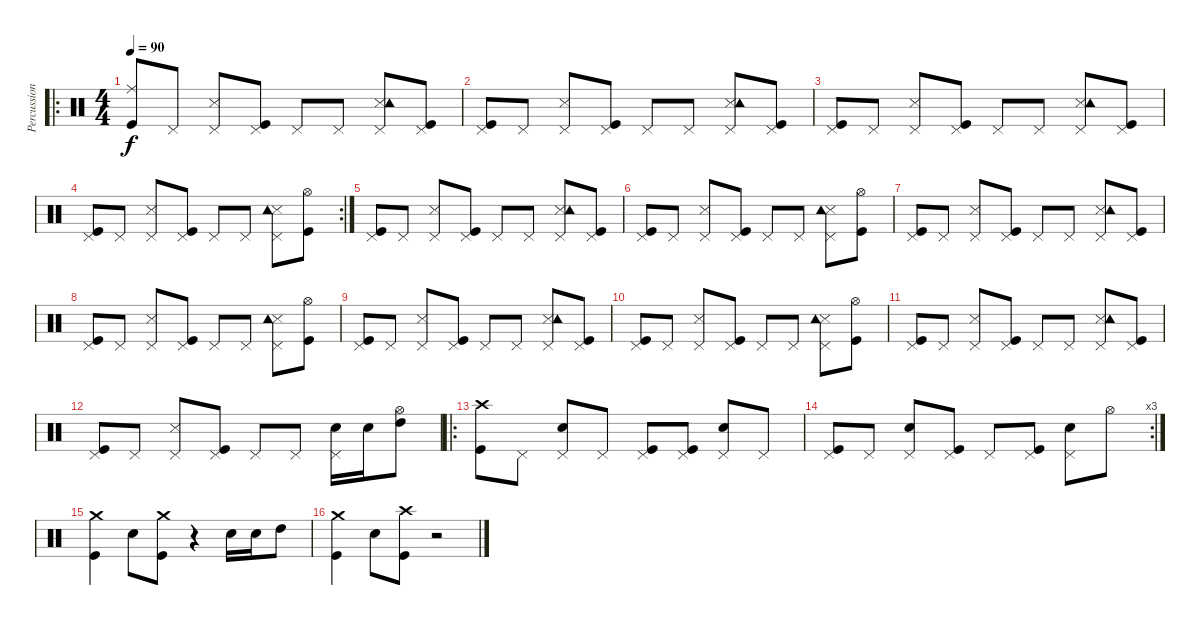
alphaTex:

\track ("Percussions" "Percussion") {instrument percussion}
\staff {score}
\articulation defaults
\ro
\ts (4 4)
\tempo 90
\clef neutral
\ks c
("Ride (middle)" "Kick (hit)").8{dy f} "Pedal Hi-Hat (hit)".8 ("Pedal Hi-Hat (hit)" "Snare (side stick) 3").8 ("Pedal Hi-Hat (hit)" "Kick (hit)").8 "Pedal Hi-Hat (hit)".8 "Pedal Hi-Hat (hit)".8 ("Pedal Hi-Hat (hit)" "Snare (side stick) 3" "Tambourine (hit)").8 ("Pedal Hi-Hat (hit)" "Kick (hit)").8 |
("Pedal Hi-Hat (hit)" "Kick (hit)").8 "Pedal Hi-Hat (hit)".8 ("Pedal Hi-Hat (hit)" "Snare (side stick) 3").8 ("Pedal Hi-Hat (hit)" "Kick (hit)").8 "Pedal Hi-Hat (hit)".8 "Pedal Hi-Hat (hit)".8 ("Pedal Hi-Hat (hit)" "Snare (side stick) 3" "Tambourine (hit)").8 ("Pedal Hi-Hat (hit)" "Kick (hit)").8 |
("Pedal Hi-Hat (hit)" "Kick (hit)").8 "Pedal Hi-Hat (hit)".8 ("Pedal Hi-Hat (hit)" "Snare (side stick) 3").8 ("Pedal Hi-Hat (hit)" "Kick (hit)").8 "Pedal Hi-Hat (hit)".8 "Pedal Hi-Hat (hit)".8 ("Pedal Hi-Hat (hit)" "Snare (side stick) 3" "Tambourine (hit)").8 ("Pedal Hi-Hat (hit)" "Kick (hit)").8 |
\rc 2
("Pedal Hi-Hat (hit)" "Kick (hit)").8 "Pedal Hi-Hat (hit)".8 ("Pedal Hi-Hat (hit)" "Snare (side stick) 3").8 ("Pedal Hi-Hat (hit)" "Kick (hit)").8 "Pedal Hi-Hat (hit)".8 "Pedal Hi-Hat (hit)".8 ("Pedal Hi-Hat (hit)" "Snare (side stick) 3" "Tambourine (hit)").8 ("Hi-Hat (open)" "Kick (hit)").8 |
("Pedal Hi-Hat (hit)" "Kick (hit)").8 "Pedal Hi-Hat (hit)".8 ("Pedal Hi-Hat (hit)" "Snare (side stick) 3").8 ("Pedal Hi-Hat (hit)" "Kick (hit)").8 "Pedal Hi-Hat (hit)".8 "Pedal Hi-Hat (hit)".8 ("Pedal Hi-Hat (hit)" "Snare (side stick) 3" "Tambourine (hit)").8 ("Pedal Hi-Hat (hit)" "Kick (hit)").8 |
("Pedal Hi-Hat (hit)" "Kick (hit)").8 "Pedal Hi-Hat (hit)".8 ("Pedal Hi-Hat (hit)" "Snare (side stick) 3").8 ("Pedal Hi-Hat (hit)" "Kick (hit)").8 "Pedal Hi-Hat (hit)".8 "Pedal Hi-Hat (hit)".8 ("Pedal Hi-Hat (hit)" "Snare (side stick) 3" "Tambourine (hit)").8 ("Hi-Hat (open)" "Kick (hit)").8 |
("Pedal Hi-Hat (hit)" "Kick (hit)").8 "Pedal Hi-Hat (hit)".8 ("Pedal Hi-Hat (hit)" "Snare (side stick) 3").8 ("Pedal Hi-Hat (hit)" "Kick (hit)").8 "Pedal Hi-Hat (hit)".8 "Pedal Hi-Hat (hit)".8 ("Pedal Hi-Hat (hit)" "Snare (side stick) 3" "Tambourine (hit)").8 ("Pedal Hi-Hat (hit)" "Kick (hit)").8 |
("Pedal Hi-Hat (hit)" "Kick (hit)").8 "Pedal Hi-Hat (hit)".8 ("Pedal Hi-Hat (hit)" "Snare (side stick) 3").8 ("Pedal Hi-Hat (hit)" "Kick (hit)").8 "Pedal Hi-Hat (hit)".8 "Pedal Hi-Hat (hit)".8 ("Pedal Hi-Hat (hit)" "Snare (side stick) 3" "Tambourine (hit)").8 ("Hi-Hat (open)" "Kick (hit)").8 |
("Pedal Hi-Hat (hit)" "Kick (hit)").8 "Pedal Hi-Hat (hit)".8 ("Pedal Hi-Hat (hit)" "Snare (side stick) 3").8 ("Pedal Hi-Hat (hit)" "Kick (hit)").8 "Pedal Hi-Hat (hit)".8 "Pedal Hi-Hat (hit)".8 ("Pedal Hi-Hat (hit)" "Snare (side stick) 3" "Tambourine (hit)").8 ("Pedal Hi-Hat (hit)" "Kick (hit)").8 |
("Pedal Hi-Hat (hit)" "Kick (hit)").8 "Pedal Hi-Hat (hit)".8 ("Pedal Hi-Hat (hit)" "Snare (side stick) 3").8 ("Pedal Hi-Hat (hit)" "Kick (hit)").8 "Pedal Hi-Hat (hit)".8 "Pedal Hi-Hat (hit)".8 ("Pedal Hi-Hat (hit)" "Snare (side stick) 3" "Tambourine (hit)").8 ("Hi-Hat (open)" "Kick (hit)").8 |
("Pedal Hi-Hat (hit)" "Kick (hit)").8 "Pedal Hi-Hat (hit)".8 ("Pedal Hi-Hat (hit)" "Snare (side stick) 3").8 ("Pedal Hi-Hat (hit)" "Kick (hit)").8 "Pedal Hi-Hat (hit)".8 "Pedal Hi-Hat (hit)".8 ("Pedal Hi-Hat (hit)" "Snare (side stick) 3" "Tambourine (hit)").8 ("Pedal Hi-Hat (hit)" "Kick (hit)").8 |
("Pedal Hi-Hat (hit)" "Kick (hit)").8 "Pedal Hi-Hat (hit)".8 ("Pedal Hi-Hat (hit)" "Snare (side stick) 3").8 ("Pedal Hi-Hat (hit)" "Kick (hit)").8 "Pedal Hi-Hat (hit)".8 "Pedal Hi-Hat (hit)".8 ("Pedal Hi-Hat (hit)" "Snare (hit) 2").16 "Snare (hit) 2".16 ("Hi-Hat (open)" "High Tom (hit)").8 |
\ro
("Crash high (hit)" "Kick (hit)").8 "Pedal Hi-Hat (hit)".8 ("Pedal Hi-Hat (hit)" "Snare (hit) 2").8 "Pedal Hi-Hat (hit)".8 ("Pedal Hi-Hat (hit)" "Kick (hit)").8 ("Pedal Hi-Hat (hit)" "Kick (hit)").8 ("Pedal Hi-Hat (hit)" "Snare (hit) 2").8 "Pedal Hi-Hat (hit)".8 |
\rc 3
("Pedal Hi-Hat (hit)" "Kick (hit)").8 "Pedal Hi-Hat (hit)".8 ("Pedal Hi-Hat (hit)" "Snare (hit) 2").8 ("Pedal Hi-Hat (hit)" "Kick (hit)").8 "Pedal Hi-Hat (hit)".8 ("Pedal Hi-Hat (hit)" "Kick (hit)").8 ("Pedal Hi-Hat (hit)" "Snare (hit) 2").8 "Hi-Hat (open)".8 |
("Crash medium (hit)" "Kick (hit)").4 "Snare (hit) 2".8 ("Crash medium (hit)" "Kick (hit)").8 r.4 "Snare (hit) 2".16 "Snare (hit) 2".16 "High Tom (hit)".8 |
("Crash medium (hit)" "Kick (hit)").4 "Snare (hit) 2".8 ("Crash high (hit)" "Kick (hit)").8 r.2
